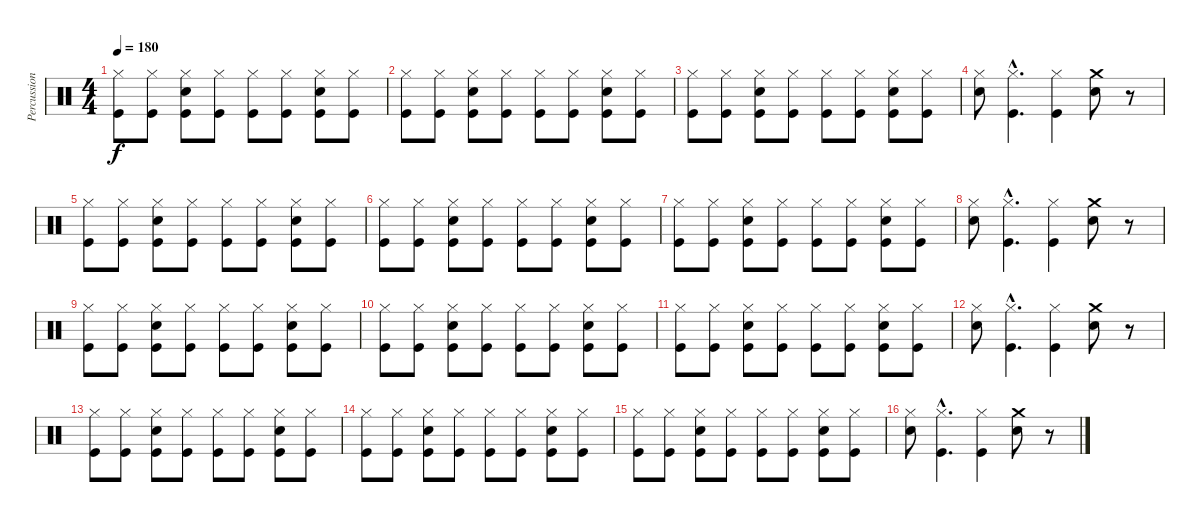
\track ("Percussion" "Percussion") {instrument percussion}
\staff {score}
\articulation defaults
\ts (4 4)
\tempo 180
\clef neutral
\ks c
("Hi-Hat (closed)" "Kick (hit)").8{dy f} ("Hi-Hat (closed)" "Kick (hit)").8 ("Hi-Hat (closed)" "Snare (hit) 2" "Kick (hit)").8 ("Hi-Hat (closed)" "Kick (hit)").8 ("Hi-Hat (closed)" "Kick (hit)").8 ("Hi-Hat (closed)" "Kick (hit)").8 ("Hi-Hat (closed)" "Snare (hit) 2" "Kick (hit)").8 ("Hi-Hat (closed)" "Kick (hit)").8 |
("Hi-Hat (closed)" "Kick (hit)").8 ("Hi-Hat (closed)" "Kick (hit)").8 ("Hi-Hat (closed)" "Snare (hit) 2" "Kick (hit)").8 ("Hi-Hat (closed)" "Kick (hit)").8 ("Hi-Hat (closed)" "Kick (hit)").8 ("Hi-Hat (closed)" "Kick (hit)").8 ("Hi-Hat (closed)" "Snare (hit) 2" "Kick (hit)").8 ("Hi-Hat (closed)" "Kick (hit)").8 |
("Hi-Hat (closed)" "Kick (hit)").8 ("Hi-Hat (closed)" "Kick (hit)").8 ("Hi-Hat (closed)" "Snare (hit) 2" "Kick (hit)").8 ("Hi-Hat (closed)" "Kick (hit)").8 ("Hi-Hat (closed)" "Kick (hit)").8 ("Hi-Hat (closed)" "Kick (hit)").8 ("Hi-Hat (closed)" "Snare (hit) 2" "Kick (hit)").8 ("Hi-Hat (closed)" "Kick (hit)").8 |
("Hi-Hat (closed)" "Snare (hit) 2").8 ("Hi-Hat (closed)"{hac} "Kick (hit)"{hac}).4{d} ("Hi-Hat (closed)" "Kick (hit)").4 ("Crash medium (hit)" "Snare (hit) 2").8 r.8 |
("Hi-Hat (closed)" "Kick (hit)").8 ("Hi-Hat (closed)" "Kick (hit)").8 ("Hi-Hat (closed)" "Snare (hit) 2" "Kick (hit)").8 ("Hi-Hat (closed)" "Kick (hit)").8 ("Hi-Hat (closed)" "Kick (hit)").8 ("Hi-Hat (closed)" "Kick (hit)").8 ("Hi-Hat (closed)" "Snare (hit) 2" "Kick (hit)").8 ("Hi-Hat (closed)" "Kick (hit)").8 |
("Hi-Hat (closed)" "Kick (hit)").8 ("Hi-Hat (closed)" "Kick (hit)").8 ("Hi-Hat (closed)" "Snare (hit) 2" "Kick (hit)").8 ("Hi-Hat (closed)" "Kick (hit)").8 ("Hi-Hat (closed)" "Kick (hit)").8 ("Hi-Hat (closed)" "Kick (hit)").8 ("Hi-Hat (closed)" "Snare (hit) 2" "Kick (hit)").8 ("Hi-Hat (closed)" "Kick (hit)").8 |
("Hi-Hat (closed)" "Kick (hit)").8 ("Hi-Hat (closed)" "Kick (hit)").8 ("Hi-Hat (closed)" "Snare (hit) 2" "Kick (hit)").8 ("Hi-Hat (closed)" "Kick (hit)").8 ("Hi-Hat (closed)" "Kick (hit)").8 ("Hi-Hat (closed)" "Kick (hit)").8 ("Hi-Hat (closed)" "Snare (hit) 2" "Kick (hit)").8 ("Hi-Hat (closed)" "Kick (hit)").8 |
("Hi-Hat (closed)" "Snare (hit) 2").8 ("Hi-Hat (closed)"{hac} "Kick (hit)"{hac}).4{d} ("Hi-Hat (closed)" "Kick (hit)").4 ("Crash medium (hit)" "Snare (hit) 2").8 r.8 |
("Hi-Hat (closed)" "Kick (hit)").8 ("Hi-Hat (closed)" "Kick (hit)").8 ("Hi-Hat (closed)" "Snare (hit) 2" "Kick (hit)").8 ("Hi-Hat (closed)" "Kick (hit)").8 ("Hi-Hat (closed)" "Kick (hit)").8 ("Hi-Hat (closed)" "Kick (hit)").8 ("Hi-Hat (closed)" "Snare (hit) 2" "Kick (hit)").8 ("Hi-Hat (closed)" "Kick (hit)").8 |
("Hi-Hat (closed)" "Kick (hit)").8 ("Hi-Hat (closed)" "Kick (hit)").8 ("Hi-Hat (closed)" "Snare (hit) 2" "Kick (hit)").8 ("Hi-Hat (closed)" "Kick (hit)").8 ("Hi-Hat (closed)" "Kick (hit)").8 ("Hi-Hat (closed)" "Kick (hit)").8 ("Hi-Hat (closed)" "Snare (hit) 2" "Kick (hit)").8 ("Hi-Hat (closed)" "Kick (hit)").8 |
("Hi-Hat (closed)" "Kick (hit)").8 ("Hi-Hat (closed)" "Kick (hit)").8 ("Hi-Hat (closed)" "Snare (hit) 2" "Kick (hit)").8 ("Hi-Hat (closed)" "Kick (hit)").8 ("Hi-Hat (closed)" "Kick (hit)").8 ("Hi-Hat (closed)" "Kick (hit)").8 ("Hi-Hat (closed)" "Snare (hit) 2" "Kick (hit)").8 ("Hi-Hat (closed)" "Kick (hit)").8 |
("Hi-Hat (closed)" "Snare (hit) 2").8 ("Hi-Hat (closed)"{hac} "Kick (hit)"{hac}).4{d} ("Hi-Hat (closed)" "Kick (hit)").4 ("Crash medium (hit)" "Snare (hit) 2").8 r.8 |
("Hi-Hat (closed)" "Kick (hit)").8 ("Hi-Hat (closed)" "Kick (hit)").8 ("Hi-Hat (closed)" "Snare (hit) 2" "Kick (hit)").8 ("Hi-Hat (closed)" "Kick (hit)").8 ("Hi-Hat (closed)" "Kick (hit)").8 ("Hi-Hat (closed)" "Kick (hit)").8 ("Hi-Hat (closed)" "Snare (hit) 2" "Kick (hit)").8 ("Hi-Hat (closed)" "Kick (hit)").8 |
("Hi-Hat (closed)" "Kick (hit)").8 ("Hi-Hat (closed)" "Kick (hit)").8 ("Hi-Hat (closed)" "Snare (hit) 2" "Kick (hit)").8 ("Hi-Hat (closed)" "Kick (hit)").8 ("Hi-Hat (closed)" "Kick (hit)").8 ("Hi-Hat (closed)" "Kick (hit)").8 ("Hi-Hat (closed)" "Snare (hit) 2" "Kick (hit)").8 ("Hi-Hat (closed)" "Kick (hit)").8 |
("Hi-Hat (closed)" "Kick (hit)").8 ("Hi-Hat (closed)" "Kick (hit)").8 ("Hi-Hat (closed)" "Snare (hit) 2" "Kick (hit)").8 ("Hi-Hat (closed)" "Kick (hit)").8 ("Hi-Hat (closed)" "Kick (hit)").8 ("Hi-Hat (closed)" "Kick (hit)").8 ("Hi-Hat (closed)" "Snare (hit) 2" "Kick (hit)").8 ("Hi-Hat (closed)" "Kick (hit)").8 |
("Hi-Hat (closed)" "Snare (hit) 2").8 ("Hi-Hat (closed)"{hac} "Kick (hit)"{hac}).4{d} ("Hi-Hat (closed)" "Kick (hit)").4 ("Crash medium (hit)" "Snare (hit) 2").8 r.8
